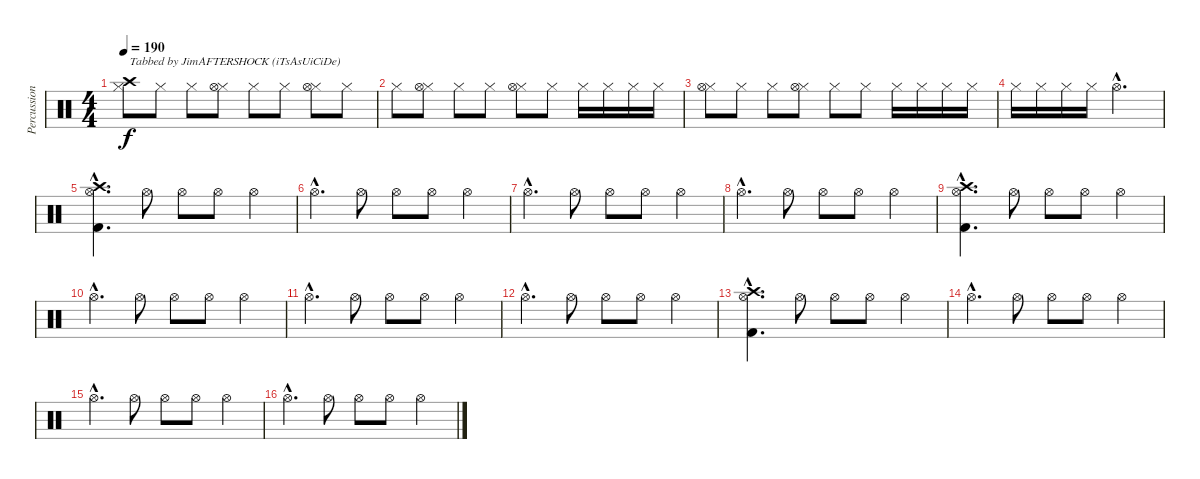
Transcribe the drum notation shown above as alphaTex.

\track ("Percussioni" "Percussion") {instrument percussion}
\staff {score}
\articulation defaults
\ts (4 4)
\tempo 190
\clef neutral
\ks c
("Hi-Hat (closed)" "Crash high (hit)").8{txt "Tabbed by JimAFTERSHOCK (iTsAsUiCiDe)" dy f} "Hi-Hat (closed)".8 "Hi-Hat (closed)".8 ("Hi-Hat (closed)" "Hi-Hat (open)").8 "Hi-Hat (closed)".8 "Hi-Hat (closed)".8 ("Hi-Hat (closed)" "Hi-Hat (open)").8 "Hi-Hat (closed)".8 |
"Hi-Hat (closed)".8 ("Hi-Hat (closed)" "Hi-Hat (open)").8 "Hi-Hat (closed)".8 "Hi-Hat (closed)".8 ("Hi-Hat (closed)" "Hi-Hat (open)").8 "Hi-Hat (closed)".8 "Hi-Hat (closed)".16 "Hi-Hat (closed)".16 "Hi-Hat (closed)".16 "Hi-Hat (closed)".16 |
("Hi-Hat (closed)" "Hi-Hat (open)").8 "Hi-Hat (closed)".8 "Hi-Hat (closed)".8 ("Hi-Hat (closed)" "Hi-Hat (open)").8 "Hi-Hat (closed)".8 "Hi-Hat (closed)".8 "Hi-Hat (closed)".16 "Hi-Hat (closed)".16 "Hi-Hat (closed)".16 "Hi-Hat (closed)".16 |
"Hi-Hat (closed)".16 "Hi-Hat (closed)".16 "Hi-Hat (closed)".16 "Hi-Hat (closed)".16 "Hi-Hat (open)"{hac}.2{d} |
("Hi-Hat (open)"{hac} "Crash high (hit)"{hac} "Kick (hit) 2"{hac}).4{d} "Hi-Hat (open)".8 "Hi-Hat (open)".8 "Hi-Hat (open)".8 "Hi-Hat (open)".4 |
"Hi-Hat (open)"{hac}.4{d} "Hi-Hat (open)".8 "Hi-Hat (open)".8 "Hi-Hat (open)".8 "Hi-Hat (open)".4 |
"Hi-Hat (open)"{hac}.4{d} "Hi-Hat (open)".8 "Hi-Hat (open)".8 "Hi-Hat (open)".8 "Hi-Hat (open)".4 |
"Hi-Hat (open)"{hac}.4{d} "Hi-Hat (open)".8 "Hi-Hat (open)".8 "Hi-Hat (open)".8 "Hi-Hat (open)".4 |
("Hi-Hat (open)"{hac} "Kick (hit) 2"{hac} "Crash high (hit)"{hac}).4{d} "Hi-Hat (open)".8 "Hi-Hat (open)".8 "Hi-Hat (open)".8 "Hi-Hat (open)".4 |
"Hi-Hat (open)"{hac}.4{d} "Hi-Hat (open)".8 "Hi-Hat (open)".8 "Hi-Hat (open)".8 "Hi-Hat (open)".4 |
"Hi-Hat (open)"{hac}.4{d} "Hi-Hat (open)".8 "Hi-Hat (open)".8 "Hi-Hat (open)".8 "Hi-Hat (open)".4 |
"Hi-Hat (open)"{hac}.4{d} "Hi-Hat (open)".8 "Hi-Hat (open)".8 "Hi-Hat (open)".8 "Hi-Hat (open)".4 |
("Hi-Hat (open)"{hac} "Kick (hit) 2"{hac} "Crash high (hit)"{hac}).4{d} "Hi-Hat (open)".8 "Hi-Hat (open)".8 "Hi-Hat (open)".8 "Hi-Hat (open)".4 |
"Hi-Hat (open)"{hac}.4{d} "Hi-Hat (open)".8 "Hi-Hat (open)".8 "Hi-Hat (open)".8 "Hi-Hat (open)".4 |
"Hi-Hat (open)"{hac}.4{d} "Hi-Hat (open)".8 "Hi-Hat (open)".8 "Hi-Hat (open)".8 "Hi-Hat (open)".4 |
"Hi-Hat (open)"{hac}.4{d} "Hi-Hat (open)".8 "Hi-Hat (open)".8 "Hi-Hat (open)".8 "Hi-Hat (open)".4
